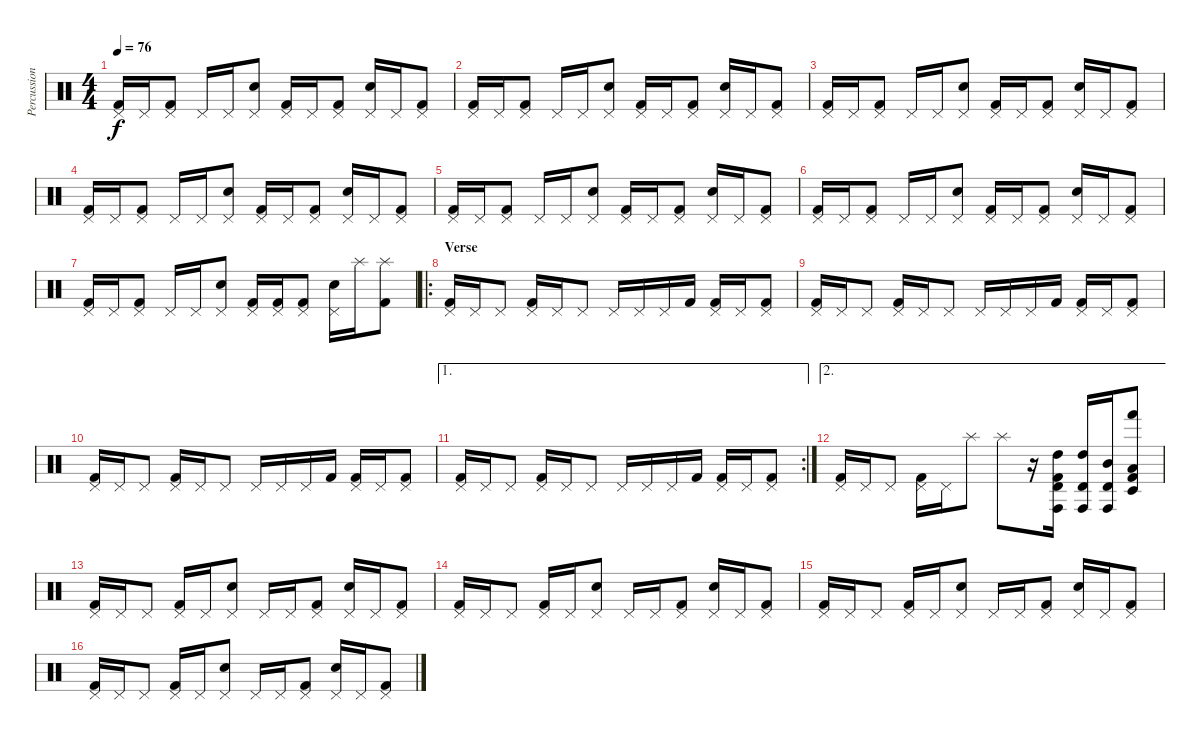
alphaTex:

\track ("Percussion" "Percussion") {instrument percussion}
\staff {score}
\articulation defaults
\ts (4 4)
\tempo 76
\clef neutral
\ks c
("Pedal Hi-Hat (hit)" "Kick (hit) 2").16{dy f} "Pedal Hi-Hat (hit)".16 ("Pedal Hi-Hat (hit)" "Kick (hit) 2").8 "Pedal Hi-Hat (hit)".16 "Pedal Hi-Hat (hit)".16 ("Pedal Hi-Hat (hit)" "Electric Snare (hit)").8 ("Pedal Hi-Hat (hit)" "Kick (hit) 2").16 "Pedal Hi-Hat (hit)".16 ("Pedal Hi-Hat (hit)" "Kick (hit) 2").8 ("Pedal Hi-Hat (hit)" "Electric Snare (hit)").16 "Pedal Hi-Hat (hit)".16 ("Pedal Hi-Hat (hit)" "Kick (hit) 2").8 |
("Pedal Hi-Hat (hit)" "Kick (hit) 2").16 "Pedal Hi-Hat (hit)".16 ("Pedal Hi-Hat (hit)" "Kick (hit) 2").8 "Pedal Hi-Hat (hit)".16 "Pedal Hi-Hat (hit)".16 ("Pedal Hi-Hat (hit)" "Electric Snare (hit)").8 ("Pedal Hi-Hat (hit)" "Kick (hit) 2").16 "Pedal Hi-Hat (hit)".16 ("Pedal Hi-Hat (hit)" "Kick (hit) 2").8 ("Pedal Hi-Hat (hit)" "Electric Snare (hit)").16 "Pedal Hi-Hat (hit)".16 ("Pedal Hi-Hat (hit)" "Kick (hit) 2").8 |
("Pedal Hi-Hat (hit)" "Kick (hit) 2").16 "Pedal Hi-Hat (hit)".16 ("Pedal Hi-Hat (hit)" "Kick (hit) 2").8 "Pedal Hi-Hat (hit)".16 "Pedal Hi-Hat (hit)".16 ("Pedal Hi-Hat (hit)" "Electric Snare (hit)").8 ("Pedal Hi-Hat (hit)" "Kick (hit) 2").16 "Pedal Hi-Hat (hit)".16 ("Pedal Hi-Hat (hit)" "Kick (hit) 2").8 ("Pedal Hi-Hat (hit)" "Electric Snare (hit)").16 "Pedal Hi-Hat (hit)".16 ("Pedal Hi-Hat (hit)" "Kick (hit) 2").8 |
("Pedal Hi-Hat (hit)" "Kick (hit) 2").16 "Pedal Hi-Hat (hit)".16 ("Pedal Hi-Hat (hit)" "Kick (hit) 2").8 "Pedal Hi-Hat (hit)".16 "Pedal Hi-Hat (hit)".16 ("Pedal Hi-Hat (hit)" "Electric Snare (hit)").8 ("Pedal Hi-Hat (hit)" "Kick (hit) 2").16 "Pedal Hi-Hat (hit)".16 ("Pedal Hi-Hat (hit)" "Kick (hit) 2").8 ("Pedal Hi-Hat (hit)" "Electric Snare (hit)").16 "Pedal Hi-Hat (hit)".16 ("Pedal Hi-Hat (hit)" "Kick (hit) 2").8 |
("Pedal Hi-Hat (hit)" "Kick (hit) 2").16 "Pedal Hi-Hat (hit)".16 ("Pedal Hi-Hat (hit)" "Kick (hit) 2").8 "Pedal Hi-Hat (hit)".16 "Pedal Hi-Hat (hit)".16 ("Pedal Hi-Hat (hit)" "Electric Snare (hit)").8 ("Pedal Hi-Hat (hit)" "Kick (hit) 2").16 "Pedal Hi-Hat (hit)".16 ("Pedal Hi-Hat (hit)" "Kick (hit) 2").8 ("Pedal Hi-Hat (hit)" "Electric Snare (hit)").16 "Pedal Hi-Hat (hit)".16 ("Pedal Hi-Hat (hit)" "Kick (hit) 2").8 |
("Pedal Hi-Hat (hit)" "Kick (hit) 2").16 "Pedal Hi-Hat (hit)".16 ("Pedal Hi-Hat (hit)" "Kick (hit) 2").8 "Pedal Hi-Hat (hit)".16 "Pedal Hi-Hat (hit)".16 ("Pedal Hi-Hat (hit)" "Electric Snare (hit)").8 ("Pedal Hi-Hat (hit)" "Kick (hit) 2").16 "Pedal Hi-Hat (hit)".16 ("Pedal Hi-Hat (hit)" "Kick (hit) 2").8 ("Pedal Hi-Hat (hit)" "Electric Snare (hit)").16 "Pedal Hi-Hat (hit)".16 ("Pedal Hi-Hat (hit)" "Kick (hit) 2").8 |
("Pedal Hi-Hat (hit)" "Kick (hit) 2").16 "Pedal Hi-Hat (hit)".16 ("Pedal Hi-Hat (hit)" "Kick (hit) 2").8 "Pedal Hi-Hat (hit)".16 "Pedal Hi-Hat (hit)".16 ("Pedal Hi-Hat (hit)" "Electric Snare (hit)").8 ("Pedal Hi-Hat (hit)" "Kick (hit) 2").16 ("Pedal Hi-Hat (hit)" "Kick (hit) 2").16 ("Pedal Hi-Hat (hit)" "Kick (hit) 2").8 ("Pedal Hi-Hat (hit)" "Electric Snare (hit)").16 "Splash (hit)".16 ("Splash (hit)" "Kick (hit) 2").8 |
\ro
\section ("" "Verse")
("Pedal Hi-Hat (hit)" "Kick (hit) 2").16 "Pedal Hi-Hat (hit)".16 "Pedal Hi-Hat (hit)".8 ("Pedal Hi-Hat (hit)" "Kick (hit) 2").16 "Pedal Hi-Hat (hit)".16 "Pedal Hi-Hat (hit)".8 "Pedal Hi-Hat (hit)".16 "Pedal Hi-Hat (hit)".16 "Pedal Hi-Hat (hit)".16 "Kick (hit) 2".16 ("Pedal Hi-Hat (hit)" "Kick (hit) 2").16 "Pedal Hi-Hat (hit)".16 ("Pedal Hi-Hat (hit)" "Kick (hit) 2").8 |
("Pedal Hi-Hat (hit)" "Kick (hit) 2").16 "Pedal Hi-Hat (hit)".16 "Pedal Hi-Hat (hit)".8 ("Pedal Hi-Hat (hit)" "Kick (hit) 2").16 "Pedal Hi-Hat (hit)".16 "Pedal Hi-Hat (hit)".8 "Pedal Hi-Hat (hit)".16 "Pedal Hi-Hat (hit)".16 "Pedal Hi-Hat (hit)".16 "Kick (hit) 2".16 ("Pedal Hi-Hat (hit)" "Kick (hit) 2").16 "Pedal Hi-Hat (hit)".16 ("Pedal Hi-Hat (hit)" "Kick (hit) 2").8 |
("Pedal Hi-Hat (hit)" "Kick (hit) 2").16 "Pedal Hi-Hat (hit)".16 "Pedal Hi-Hat (hit)".8 ("Pedal Hi-Hat (hit)" "Kick (hit) 2").16 "Pedal Hi-Hat (hit)".16 "Pedal Hi-Hat (hit)".8 "Pedal Hi-Hat (hit)".16 "Pedal Hi-Hat (hit)".16 "Pedal Hi-Hat (hit)".16 "Kick (hit) 2".16 ("Pedal Hi-Hat (hit)" "Kick (hit) 2").16 "Pedal Hi-Hat (hit)".16 ("Pedal Hi-Hat (hit)" "Kick (hit) 2").8 |
\ae 1
\rc 2
("Pedal Hi-Hat (hit)" "Kick (hit) 2").16 "Pedal Hi-Hat (hit)".16 "Pedal Hi-Hat (hit)".8 ("Pedal Hi-Hat (hit)" "Kick (hit) 2").16 "Pedal Hi-Hat (hit)".16 "Pedal Hi-Hat (hit)".8 "Pedal Hi-Hat (hit)".16 "Pedal Hi-Hat (hit)".16 "Pedal Hi-Hat (hit)".16 "Kick (hit) 2".16 ("Pedal Hi-Hat (hit)" "Kick (hit) 2").16 "Pedal Hi-Hat (hit)".16 ("Pedal Hi-Hat (hit)" "Kick (hit) 2").8 |
\ae 2
("Pedal Hi-Hat (hit)" "Kick (hit) 2").16 "Pedal Hi-Hat (hit)".16 "Pedal Hi-Hat (hit)".8 ("Pedal Hi-Hat (hit)" "Kick (hit) 2").16 "Pedal Hi-Hat (hit)".16 "Splash (hit)".8 "Splash (hit)".8 r.16 ("Timbale high (hit)" "Conga high (hit)" "High Tom (hit)" "Kick (hit) 2").16 ("Timbale high (hit)" "Conga high (hit)" "High Tom (hit)").16 ("Timbale high (hit)" "Conga high (hit)" "Mid Tom (hit)").16 ("Timbale low (hit)" "Hand (hit)" "Low Tom (hit)" "Kick (hit) 2").8 |
("Pedal Hi-Hat (hit)" "Kick (hit) 2").16 "Pedal Hi-Hat (hit)".16 "Pedal Hi-Hat (hit)".8 ("Pedal Hi-Hat (hit)" "Kick (hit) 2").16 "Pedal Hi-Hat (hit)".16 ("Pedal Hi-Hat (hit)" "Electric Snare (hit)").8 "Pedal Hi-Hat (hit)".16 "Pedal Hi-Hat (hit)".16 ("Pedal Hi-Hat (hit)" "Kick (hit) 2").8 ("Pedal Hi-Hat (hit)" "Electric Snare (hit)").16 "Pedal Hi-Hat (hit)".16 ("Pedal Hi-Hat (hit)" "Kick (hit) 2").8 |
("Pedal Hi-Hat (hit)" "Kick (hit) 2").16 "Pedal Hi-Hat (hit)".16 "Pedal Hi-Hat (hit)".8 ("Pedal Hi-Hat (hit)" "Kick (hit) 2").16 "Pedal Hi-Hat (hit)".16 ("Pedal Hi-Hat (hit)" "Electric Snare (hit)").8 "Pedal Hi-Hat (hit)".16 "Pedal Hi-Hat (hit)".16 ("Pedal Hi-Hat (hit)" "Kick (hit) 2").8 ("Pedal Hi-Hat (hit)" "Electric Snare (hit)").16 "Pedal Hi-Hat (hit)".16 ("Pedal Hi-Hat (hit)" "Kick (hit) 2").8 |
("Pedal Hi-Hat (hit)" "Kick (hit) 2").16 "Pedal Hi-Hat (hit)".16 "Pedal Hi-Hat (hit)".8 ("Pedal Hi-Hat (hit)" "Kick (hit) 2").16 "Pedal Hi-Hat (hit)".16 ("Pedal Hi-Hat (hit)" "Electric Snare (hit)").8 "Pedal Hi-Hat (hit)".16 "Pedal Hi-Hat (hit)".16 ("Pedal Hi-Hat (hit)" "Kick (hit) 2").8 ("Pedal Hi-Hat (hit)" "Electric Snare (hit)").16 "Pedal Hi-Hat (hit)".16 ("Pedal Hi-Hat (hit)" "Kick (hit) 2").8 |
("Pedal Hi-Hat (hit)" "Kick (hit) 2").16 "Pedal Hi-Hat (hit)".16 "Pedal Hi-Hat (hit)".8 ("Pedal Hi-Hat (hit)" "Kick (hit) 2").16 "Pedal Hi-Hat (hit)".16 ("Pedal Hi-Hat (hit)" "Electric Snare (hit)").8 "Pedal Hi-Hat (hit)".16 "Pedal Hi-Hat (hit)".16 ("Pedal Hi-Hat (hit)" "Kick (hit) 2").8 ("Pedal Hi-Hat (hit)" "Electric Snare (hit)").16 "Pedal Hi-Hat (hit)".16 ("Pedal Hi-Hat (hit)" "Kick (hit) 2").8
